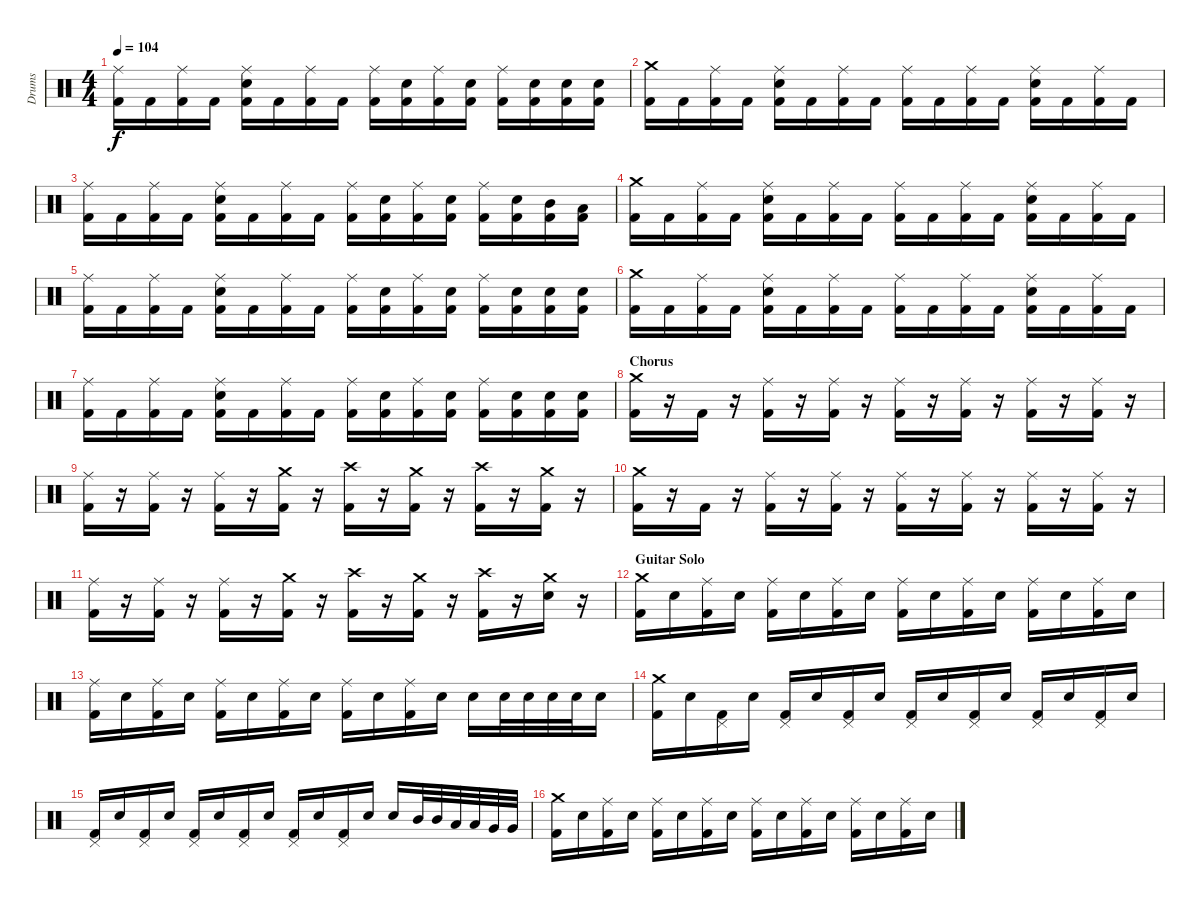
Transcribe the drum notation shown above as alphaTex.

\track ("Drums" "Drums") {instrument percussion}
\staff {score}
\articulation defaults
\ts (4 4)
\tempo 104
\clef neutral
\ks c
("Ride (middle)" "Kick (hit) 2").16{dy f} "Kick (hit) 2".16 ("Ride (middle)" "Kick (hit) 2").16 "Kick (hit) 2".16 ("Ride (middle)" "Electric Snare (hit)" "Kick (hit) 2").16 "Kick (hit) 2".16 ("Ride (middle)" "Kick (hit) 2").16 "Kick (hit) 2".16 ("Ride (middle)" "Kick (hit) 2").16 ("Electric Snare (hit)" "Kick (hit) 2").16 ("Ride (middle)" "Kick (hit) 2").16 ("Electric Snare (hit)" "Kick (hit) 2").16 ("Ride (middle)" "Kick (hit) 2").16 ("Electric Snare (hit)" "Kick (hit) 2").16 ("Electric Snare (hit)" "Kick (hit) 2").16 ("Electric Snare (hit)" "Kick (hit) 2").16 |
("Crash medium (hit)" "Kick (hit) 2").16 "Kick (hit) 2".16 ("Ride (middle)" "Kick (hit) 2").16 "Kick (hit) 2".16 ("Ride (middle)" "Electric Snare (hit)" "Kick (hit) 2").16 "Kick (hit) 2".16 ("Ride (middle)" "Kick (hit) 2").16 "Kick (hit) 2".16 ("Ride (middle)" "Kick (hit) 2").16 "Kick (hit) 2".16 ("Ride (middle)" "Kick (hit) 2").16 "Kick (hit) 2".16 ("Ride (middle)" "Electric Snare (hit)" "Kick (hit) 2").16 "Kick (hit) 2".16 ("Ride (middle)" "Kick (hit) 2").16 "Kick (hit) 2".16 |
("Ride (middle)" "Kick (hit) 2").16 "Kick (hit) 2".16 ("Ride (middle)" "Kick (hit) 2").16 "Kick (hit) 2".16 ("Ride (middle)" "Electric Snare (hit)" "Kick (hit) 2").16 "Kick (hit) 2".16 ("Ride (middle)" "Kick (hit) 2").16 "Kick (hit) 2".16 ("Ride (middle)" "Kick (hit) 2").16 ("Electric Snare (hit)" "Kick (hit) 2").16 ("Ride (middle)" "Kick (hit) 2").16 ("Electric Snare (hit)" "Kick (hit) 2").16 ("Ride (middle)" "Kick (hit) 2").16 ("Electric Snare (hit)" "Kick (hit) 2").16 ("Mid Tom (hit)" "Kick (hit) 2").16 ("Low Tom (hit)" "Kick (hit) 2").16 |
("Crash medium (hit)" "Kick (hit) 2").16 "Kick (hit) 2".16 ("Ride (middle)" "Kick (hit) 2").16 "Kick (hit) 2".16 ("Ride (middle)" "Electric Snare (hit)" "Kick (hit) 2").16 "Kick (hit) 2".16 ("Ride (middle)" "Kick (hit) 2").16 "Kick (hit) 2".16 ("Ride (middle)" "Kick (hit) 2").16 "Kick (hit) 2".16 ("Ride (middle)" "Kick (hit) 2").16 "Kick (hit) 2".16 ("Ride (middle)" "Electric Snare (hit)" "Kick (hit) 2").16 "Kick (hit) 2".16 ("Ride (middle)" "Kick (hit) 2").16 "Kick (hit) 2".16 |
("Ride (middle)" "Kick (hit) 2").16 "Kick (hit) 2".16 ("Ride (middle)" "Kick (hit) 2").16 "Kick (hit) 2".16 ("Ride (middle)" "Electric Snare (hit)" "Kick (hit) 2").16 "Kick (hit) 2".16 ("Ride (middle)" "Kick (hit) 2").16 "Kick (hit) 2".16 ("Ride (middle)" "Kick (hit) 2").16 ("Electric Snare (hit)" "Kick (hit) 2").16 ("Ride (middle)" "Kick (hit) 2").16 ("Electric Snare (hit)" "Kick (hit) 2").16 ("Ride (middle)" "Kick (hit) 2").16 ("Electric Snare (hit)" "Kick (hit) 2").16 ("Electric Snare (hit)" "Kick (hit) 2").16 ("Electric Snare (hit)" "Kick (hit) 2").16 |
("Crash medium (hit)" "Kick (hit) 2").16 "Kick (hit) 2".16 ("Ride (middle)" "Kick (hit) 2").16 "Kick (hit) 2".16 ("Ride (middle)" "Electric Snare (hit)" "Kick (hit) 2").16 "Kick (hit) 2".16 ("Ride (middle)" "Kick (hit) 2").16 "Kick (hit) 2".16 ("Ride (middle)" "Kick (hit) 2").16 "Kick (hit) 2".16 ("Ride (middle)" "Kick (hit) 2").16 "Kick (hit) 2".16 ("Ride (middle)" "Electric Snare (hit)" "Kick (hit) 2").16 "Kick (hit) 2".16 ("Ride (middle)" "Kick (hit) 2").16 "Kick (hit) 2".16 |
("Ride (middle)" "Kick (hit) 2").16 "Kick (hit) 2".16 ("Ride (middle)" "Kick (hit) 2").16 "Kick (hit) 2".16 ("Ride (middle)" "Electric Snare (hit)" "Kick (hit) 2").16 "Kick (hit) 2".16 ("Ride (middle)" "Kick (hit) 2").16 "Kick (hit) 2".16 ("Ride (middle)" "Kick (hit) 2").16 ("Electric Snare (hit)" "Kick (hit) 2").16 ("Ride (middle)" "Kick (hit) 2").16 ("Electric Snare (hit)" "Kick (hit) 2").16 ("Ride (middle)" "Kick (hit) 2").16 ("Electric Snare (hit)" "Kick (hit) 2").16 ("Electric Snare (hit)" "Kick (hit) 2").16 ("Electric Snare (hit)" "Kick (hit) 2").16 |
\section ("" "Chorus")
("Crash medium (hit)" "Kick (hit) 2").16 r.16 "Kick (hit) 2".16 r.16 ("Ride (middle)" "Kick (hit) 2").16 r.16 ("Ride (middle)" "Kick (hit) 2").16 r.16 ("Ride (middle)" "Kick (hit) 2").16 r.16 ("Ride (middle)" "Kick (hit) 2").16 r.16 ("Ride (middle)" "Kick (hit) 2").16 r.16 ("Ride (middle)" "Kick (hit) 2").16 r.16 |
("Ride (middle)" "Kick (hit) 2").16 r.16 ("Ride (middle)" "Kick (hit) 2").16 r.16 ("Ride (middle)" "Kick (hit) 2").16 r.16 ("Crash medium (hit)" "Kick (hit) 2").16 r.16 ("Crash high (hit)" "Kick (hit) 2").16 r.16 ("Crash medium (hit)" "Kick (hit) 2").16 r.16 ("Crash high (hit)" "Kick (hit) 2").16 r.16 ("Crash medium (hit)" "Kick (hit) 2").16 r.16 |
("Crash medium (hit)" "Kick (hit) 2").16 r.16 "Kick (hit) 2".16 r.16 ("Ride (middle)" "Kick (hit) 2").16 r.16 ("Ride (middle)" "Kick (hit) 2").16 r.16 ("Ride (middle)" "Kick (hit) 2").16 r.16 ("Ride (middle)" "Kick (hit) 2").16 r.16 ("Ride (middle)" "Kick (hit) 2").16 r.16 ("Ride (middle)" "Kick (hit) 2").16 r.16 |
("Ride (middle)" "Kick (hit) 2").16 r.16 ("Ride (middle)" "Kick (hit) 2").16 r.16 ("Ride (middle)" "Kick (hit) 2").16 r.16 ("Crash medium (hit)" "Kick (hit) 2").16 r.16 ("Crash high (hit)" "Kick (hit) 2").16 r.16 ("Crash medium (hit)" "Kick (hit) 2").16 r.16 ("Crash high (hit)" "Kick (hit) 2").16 r.16 ("Crash medium (hit)" "Electric Snare (hit)").16 r.16 |
\section ("" "Guitar Solo")
("Crash medium (hit)" "Kick (hit) 2").16 "Electric Snare (hit)".16 ("Ride (middle)" "Kick (hit) 2").16 "Electric Snare (hit)".16 ("Ride (middle)" "Kick (hit) 2").16 "Electric Snare (hit)".16 ("Ride (middle)" "Kick (hit) 2").16 "Electric Snare (hit)".16 ("Ride (middle)" "Kick (hit) 2").16 "Electric Snare (hit)".16 ("Ride (middle)" "Kick (hit) 2").16 "Electric Snare (hit)".16 ("Ride (middle)" "Kick (hit) 2").16 "Electric Snare (hit)".16 ("Ride (middle)" "Kick (hit) 2").16 "Electric Snare (hit)".16 |
("Ride (middle)" "Kick (hit) 2").16 "Electric Snare (hit)".16 ("Ride (middle)" "Kick (hit) 2").16 "Electric Snare (hit)".16 ("Ride (middle)" "Kick (hit) 2").16 "Electric Snare (hit)".16 ("Ride (middle)" "Kick (hit) 2").16 "Electric Snare (hit)".16 ("Ride (middle)" "Kick (hit) 2").16 "Electric Snare (hit)".16 ("Ride (middle)" "Kick (hit) 2").16 "Electric Snare (hit)".16 "Electric Snare (hit)".16 "Electric Snare (hit)".32 "Electric Snare (hit)".32 "Electric Snare (hit)".32 "Electric Snare (hit)".32 "Electric Snare (hit)".16 |
("Crash medium (hit)" "Kick (hit) 2").16 "Electric Snare (hit)".16 ("Pedal Hi-Hat (hit)" "Kick (hit) 2").16 "Electric Snare (hit)".16 ("Pedal Hi-Hat (hit)" "Kick (hit) 2").16 "Electric Snare (hit)".16 ("Pedal Hi-Hat (hit)" "Kick (hit) 2").16 "Electric Snare (hit)".16 ("Pedal Hi-Hat (hit)" "Kick (hit) 2").16 "Electric Snare (hit)".16 ("Pedal Hi-Hat (hit)" "Kick (hit) 2").16 "Electric Snare (hit)".16 ("Pedal Hi-Hat (hit)" "Kick (hit) 2").16 "Electric Snare (hit)".16 ("Pedal Hi-Hat (hit)" "Kick (hit) 2").16 "Electric Snare (hit)".16 |
("Pedal Hi-Hat (hit)" "Kick (hit) 2").16 "Electric Snare (hit)".16 ("Pedal Hi-Hat (hit)" "Kick (hit) 2").16 "Electric Snare (hit)".16 ("Pedal Hi-Hat (hit)" "Kick (hit) 2").16 "Electric Snare (hit)".16 ("Pedal Hi-Hat (hit)" "Kick (hit) 2").16 "Electric Snare (hit)".16 ("Pedal Hi-Hat (hit)" "Kick (hit) 2").16 "Electric Snare (hit)".16 ("Pedal Hi-Hat (hit)" "Kick (hit) 2").16 "Electric Snare (hit)".16 "Electric Snare (hit)".16 "Mid Tom (hit)".32 "Mid Tom (hit)".32 "Low Tom (hit)".32 "Low Tom (hit)".32 "Very Low Tom (hit)".32 "Very Low Tom (hit)".32 |
("Crash medium (hit)" "Kick (hit) 2").16 "Electric Snare (hit)".16 ("Ride (middle)" "Kick (hit) 2").16 "Electric Snare (hit)".16 ("Ride (middle)" "Kick (hit) 2").16 "Electric Snare (hit)".16 ("Ride (middle)" "Kick (hit) 2").16 "Electric Snare (hit)".16 ("Ride (middle)" "Kick (hit) 2").16 "Electric Snare (hit)".16 ("Ride (middle)" "Kick (hit) 2").16 "Electric Snare (hit)".16 ("Ride (middle)" "Kick (hit) 2").16 "Electric Snare (hit)".16 ("Ride (middle)" "Kick (hit) 2").16 "Electric Snare (hit)".16
